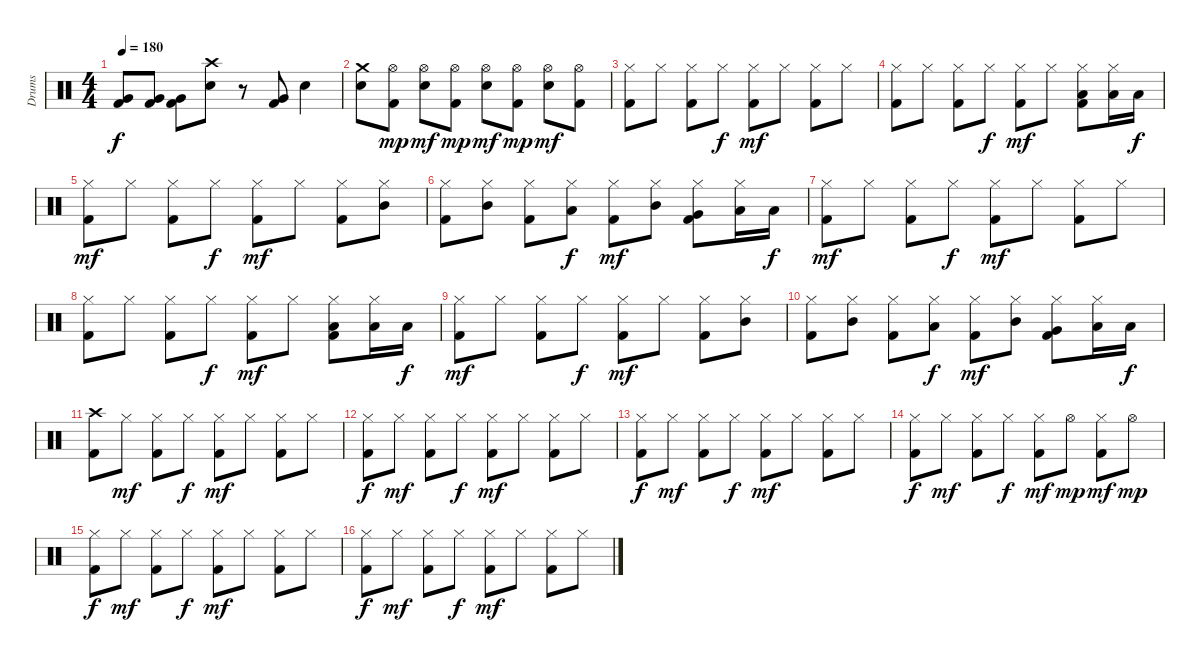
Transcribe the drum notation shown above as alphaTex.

\track ("Drums" "Drums") {instrument percussion}
\staff {score}
\articulation defaults
\ts (4 4)
\tempo 180
\clef neutral
\ks c
("Very Low Tom (hit)" "Kick (hit) 2").8{dy f} ("Very Low Tom (hit)" "Kick (hit) 2").8 ("Very Low Tom (hit)" "Kick (hit) 2").8 ("Crash high (hit)" "Electric Snare (hit)").8 r.8 ("Very Low Tom (hit)" "Kick (hit) 2").8 "Electric Snare (hit)".4 |
("Crash medium (hit)" "Electric Snare (hit)").8 ("Hi-Hat (open)" "Kick (hit) 2").8{dy mp} ("Hi-Hat (open)" "Electric Snare (hit)").8{dy mf} ("Hi-Hat (open)" "Kick (hit) 2").8{dy mp} ("Hi-Hat (open)" "Electric Snare (hit)").8{dy mf} ("Hi-Hat (open)" "Kick (hit) 2").8{dy mp} ("Hi-Hat (open)" "Electric Snare (hit)").8{dy mf} ("Hi-Hat (open)" "Kick (hit) 2").8 |
("Hi-Hat (closed)" "Kick (hit) 2").8 "Hi-Hat (closed)".8 ("Hi-Hat (closed)" "Kick (hit) 2").8 "Hi-Hat (closed)".8{dy f} ("Hi-Hat (closed)" "Kick (hit) 2").8{dy mf} "Hi-Hat (closed)".8 ("Hi-Hat (closed)" "Kick (hit) 2").8 "Hi-Hat (closed)".8 |
("Hi-Hat (closed)" "Kick (hit) 2").8 "Hi-Hat (closed)".8 ("Hi-Hat (closed)" "Kick (hit) 2").8 "Hi-Hat (closed)".8{dy f} ("Hi-Hat (closed)" "Kick (hit) 2").8{dy mf} "Hi-Hat (closed)".8 ("Hi-Hat (closed)" "Low Floor Tom (hit)" "Kick (hit) 2").8 ("Hi-Hat (closed)" "Low Floor Tom (hit)").16 "Low Floor Tom (hit)".16{dy f} |
("Hi-Hat (closed)" "Kick (hit) 2").8{dy mf} "Hi-Hat (closed)".8 ("Hi-Hat (closed)" "Kick (hit) 2").8 "Hi-Hat (closed)".8{dy f} ("Hi-Hat (closed)" "Kick (hit) 2").8{dy mf} "Hi-Hat (closed)".8 ("Hi-Hat (closed)" "Kick (hit) 2").8 ("Hi-Hat (closed)" "Mid Tom (hit)").8 |
("Hi-Hat (closed)" "Kick (hit) 2").8 ("Hi-Hat (closed)" "Mid Tom (hit)").8 ("Hi-Hat (closed)" "Kick (hit) 2").8 ("Hi-Hat (closed)" "Low Tom (hit)").8{dy f} ("Hi-Hat (closed)" "Kick (hit) 2").8{dy mf} ("Hi-Hat (closed)" "Mid Tom (hit)").8 ("Hi-Hat (closed)" "Very Low Tom (hit)" "Kick (hit) 2").8 ("Hi-Hat (closed)" "Low Floor Tom (hit)").16 "Low Floor Tom (hit)".16{dy f} |
("Hi-Hat (closed)" "Kick (hit) 2").8{dy mf} "Hi-Hat (closed)".8 ("Hi-Hat (closed)" "Kick (hit) 2").8 "Hi-Hat (closed)".8{dy f} ("Hi-Hat (closed)" "Kick (hit) 2").8{dy mf} "Hi-Hat (closed)".8 ("Hi-Hat (closed)" "Kick (hit) 2").8 "Hi-Hat (closed)".8 |
("Hi-Hat (closed)" "Kick (hit) 2").8 "Hi-Hat (closed)".8 ("Hi-Hat (closed)" "Kick (hit) 2").8 "Hi-Hat (closed)".8{dy f} ("Hi-Hat (closed)" "Kick (hit) 2").8{dy mf} "Hi-Hat (closed)".8 ("Hi-Hat (closed)" "Low Floor Tom (hit)" "Kick (hit) 2").8 ("Hi-Hat (closed)" "Low Floor Tom (hit)").16 "Low Floor Tom (hit)".16{dy f} |
("Hi-Hat (closed)" "Kick (hit) 2").8{dy mf} "Hi-Hat (closed)".8 ("Hi-Hat (closed)" "Kick (hit) 2").8 "Hi-Hat (closed)".8{dy f} ("Hi-Hat (closed)" "Kick (hit) 2").8{dy mf} "Hi-Hat (closed)".8 ("Hi-Hat (closed)" "Kick (hit) 2").8 ("Hi-Hat (closed)" "Mid Tom (hit)").8 |
("Hi-Hat (closed)" "Kick (hit) 2").8 ("Hi-Hat (closed)" "Mid Tom (hit)").8 ("Hi-Hat (closed)" "Kick (hit) 2").8 ("Hi-Hat (closed)" "Low Tom (hit)").8{dy f} ("Hi-Hat (closed)" "Kick (hit) 2").8{dy mf} ("Hi-Hat (closed)" "Mid Tom (hit)").8 ("Hi-Hat (closed)" "Very Low Tom (hit)" "Kick (hit) 2").8 ("Hi-Hat (closed)" "Low Floor Tom (hit)").16 "Low Floor Tom (hit)".16{dy f} |
("Crash high (hit)" "Kick (hit) 2").8 "Hi-Hat (closed)".8{dy mf} ("Hi-Hat (closed)" "Kick (hit) 2").8 "Hi-Hat (closed)".8{dy f} ("Hi-Hat (closed)" "Kick (hit) 2").8{dy mf} "Hi-Hat (closed)".8 ("Hi-Hat (closed)" "Kick (hit) 2").8 "Hi-Hat (closed)".8 |
("Hi-Hat (closed)" "Kick (hit) 2").8{dy f} "Hi-Hat (closed)".8{dy mf} ("Hi-Hat (closed)" "Kick (hit) 2").8 "Hi-Hat (closed)".8{dy f} ("Hi-Hat (closed)" "Kick (hit) 2").8{dy mf} "Hi-Hat (closed)".8 ("Hi-Hat (closed)" "Kick (hit) 2").8 "Hi-Hat (closed)".8 |
("Hi-Hat (closed)" "Kick (hit) 2").8{dy f} "Hi-Hat (closed)".8{dy mf} ("Hi-Hat (closed)" "Kick (hit) 2").8 "Hi-Hat (closed)".8{dy f} ("Hi-Hat (closed)" "Kick (hit) 2").8{dy mf} "Hi-Hat (closed)".8 ("Hi-Hat (closed)" "Kick (hit) 2").8 "Hi-Hat (closed)".8 |
("Hi-Hat (closed)" "Kick (hit) 2").8{dy f} "Hi-Hat (closed)".8{dy mf} ("Hi-Hat (closed)" "Kick (hit) 2").8 "Hi-Hat (closed)".8{dy f} ("Hi-Hat (closed)" "Kick (hit) 2").8{dy mf} "Hi-Hat (open)".8{dy mp} ("Hi-Hat (closed)" "Kick (hit) 2").8{dy mf} "Hi-Hat (open)".8{dy mp} |
("Hi-Hat (closed)" "Kick (hit) 2").8{dy f} "Hi-Hat (closed)".8{dy mf} ("Hi-Hat (closed)" "Kick (hit) 2").8 "Hi-Hat (closed)".8{dy f} ("Hi-Hat (closed)" "Kick (hit) 2").8{dy mf} "Hi-Hat (closed)".8 ("Hi-Hat (closed)" "Kick (hit) 2").8 "Hi-Hat (closed)".8 |
("Hi-Hat (closed)" "Kick (hit) 2").8{dy f} "Hi-Hat (closed)".8{dy mf} ("Hi-Hat (closed)" "Kick (hit) 2").8 "Hi-Hat (closed)".8{dy f} ("Hi-Hat (closed)" "Kick (hit) 2").8{dy mf} "Hi-Hat (closed)".8 ("Hi-Hat (closed)" "Kick (hit) 2").8 "Hi-Hat (closed)".8
